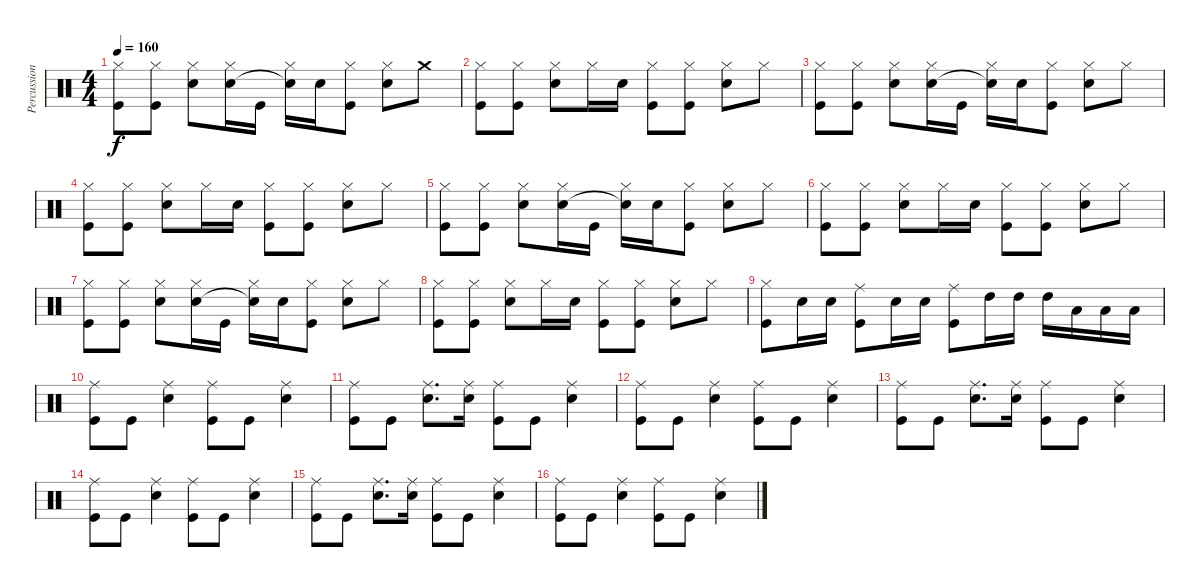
\track ("Percussion" "Percussion") {instrument percussion}
\staff {score}
\articulation defaults
\ts (4 4)
\tempo 160
\clef neutral
\ks c
("Hi-Hat (closed)" "Kick (hit)").8{dy f} ("Hi-Hat (closed)" "Kick (hit)").8 ("Hi-Hat (closed)" "Snare (hit) 2").8 ("Hi-Hat (closed)" "Snare (hit) 2").16 "Kick (hit)".16 ("Hi-Hat (closed)" "Snare (hit)"{t}).16 "Snare (hit) 2".16 ("Hi-Hat (closed)" "Kick (hit)").8 ("Hi-Hat (closed)" "Snare (hit) 2").8 "Crash medium (hit)".8 |
("Hi-Hat (closed)" "Kick (hit)").8 ("Hi-Hat (closed)" "Kick (hit)").8 ("Hi-Hat (closed)" "Snare (hit) 2").8 "Hi-Hat (closed)".16 "Snare (hit) 2".16 ("Hi-Hat (closed)" "Kick (hit)").8 ("Hi-Hat (closed)" "Kick (hit)").8 ("Hi-Hat (closed)" "Snare (hit) 2").8 "Hi-Hat (closed)".8 |
("Hi-Hat (closed)" "Kick (hit)").8 ("Hi-Hat (closed)" "Kick (hit)").8 ("Hi-Hat (closed)" "Snare (hit) 2").8 ("Hi-Hat (closed)" "Snare (hit) 2").16 "Kick (hit)".16 ("Hi-Hat (closed)" "Snare (hit)"{t}).16 "Snare (hit) 2".16 ("Hi-Hat (closed)" "Kick (hit)").8 ("Hi-Hat (closed)" "Snare (hit) 2").8 "Hi-Hat (closed)".8 |
("Hi-Hat (closed)" "Kick (hit)").8 ("Hi-Hat (closed)" "Kick (hit)").8 ("Hi-Hat (closed)" "Snare (hit) 2").8 "Hi-Hat (closed)".16 "Snare (hit) 2".16 ("Hi-Hat (closed)" "Kick (hit)").8 ("Hi-Hat (closed)" "Kick (hit)").8 ("Hi-Hat (closed)" "Snare (hit) 2").8 "Hi-Hat (closed)".8 |
("Hi-Hat (closed)" "Kick (hit)").8 ("Hi-Hat (closed)" "Kick (hit)").8 ("Hi-Hat (closed)" "Snare (hit) 2").8 ("Hi-Hat (closed)" "Snare (hit) 2").16 "Kick (hit)".16 ("Hi-Hat (closed)" "Snare (hit)"{t}).16 "Snare (hit) 2".16 ("Hi-Hat (closed)" "Kick (hit)").8 ("Hi-Hat (closed)" "Snare (hit) 2").8 "Hi-Hat (closed)".8 |
("Hi-Hat (closed)" "Kick (hit)").8 ("Hi-Hat (closed)" "Kick (hit)").8 ("Hi-Hat (closed)" "Snare (hit) 2").8 "Hi-Hat (closed)".16 "Snare (hit) 2".16 ("Hi-Hat (closed)" "Kick (hit)").8 ("Hi-Hat (closed)" "Kick (hit)").8 ("Hi-Hat (closed)" "Snare (hit) 2").8 "Hi-Hat (closed)".8 |
("Hi-Hat (closed)" "Kick (hit)").8 ("Hi-Hat (closed)" "Kick (hit)").8 ("Hi-Hat (closed)" "Snare (hit) 2").8 ("Hi-Hat (closed)" "Snare (hit) 2").16 "Kick (hit)".16 ("Hi-Hat (closed)" "Snare (hit)"{t}).16 "Snare (hit) 2".16 ("Hi-Hat (closed)" "Kick (hit)").8 ("Hi-Hat (closed)" "Snare (hit) 2").8 "Hi-Hat (closed)".8 |
("Hi-Hat (closed)" "Kick (hit)").8 ("Hi-Hat (closed)" "Kick (hit)").8 ("Hi-Hat (closed)" "Snare (hit) 2").8 "Hi-Hat (closed)".16 "Snare (hit) 2".16 ("Hi-Hat (closed)" "Kick (hit)").8 ("Hi-Hat (closed)" "Kick (hit)").8 ("Hi-Hat (closed)" "Snare (hit) 2").8 "Hi-Hat (closed)".8 |
("Hi-Hat (closed)" "Kick (hit)").8 "Snare (hit) 2".16 "Snare (hit) 2".16 ("Ride (middle)" "Kick (hit)").8 "Snare (hit) 2".16 "Snare (hit) 2".16 ("Ride (middle)" "Kick (hit)").8 "High Tom (hit)".16 "High Tom (hit)".16 "High Tom (hit)".16 "Low Tom (hit)".16 "Low Tom (hit)".16 "Low Tom (hit)".16 |
("Ride (middle)" "Kick (hit)").8 "Kick (hit)".8 ("Ride (middle)" "Snare (hit) 2").4 ("Ride (middle)" "Kick (hit)").8 "Kick (hit)".8 ("Ride (middle)" "Snare (hit) 2").4 |
("Ride (middle)" "Kick (hit)").8 "Kick (hit)".8 ("Ride (middle)" "Snare (hit) 2").8{d} ("Ride (middle)" "Snare (hit) 2").16 ("Ride (middle)" "Kick (hit)").8 "Kick (hit)".8 ("Ride (middle)" "Snare (hit) 2").4 |
("Ride (middle)" "Kick (hit)").8 "Kick (hit)".8 ("Ride (middle)" "Snare (hit) 2").4 ("Ride (middle)" "Kick (hit)").8 "Kick (hit)".8 ("Ride (middle)" "Snare (hit) 2").4 |
("Ride (middle)" "Kick (hit)").8 "Kick (hit)".8 ("Ride (middle)" "Snare (hit) 2").8{d} ("Ride (middle)" "Snare (hit) 2").16 ("Ride (middle)" "Kick (hit)").8 "Kick (hit)".8 ("Ride (middle)" "Snare (hit) 2").4 |
("Ride (middle)" "Kick (hit)").8 "Kick (hit)".8 ("Ride (middle)" "Snare (hit) 2").4 ("Ride (middle)" "Kick (hit)").8 "Kick (hit)".8 ("Ride (middle)" "Snare (hit) 2").4 |
("Ride (middle)" "Kick (hit)").8 "Kick (hit)".8 ("Ride (middle)" "Snare (hit) 2").8{d} ("Ride (middle)" "Snare (hit) 2").16 ("Ride (middle)" "Kick (hit)").8 "Kick (hit)".8 ("Ride (middle)" "Snare (hit) 2").4 |
("Ride (middle)" "Kick (hit)").8 "Kick (hit)".8 ("Ride (middle)" "Snare (hit) 2").4 ("Ride (middle)" "Kick (hit)").8 "Kick (hit)".8 ("Ride (middle)" "Snare (hit) 2").4
